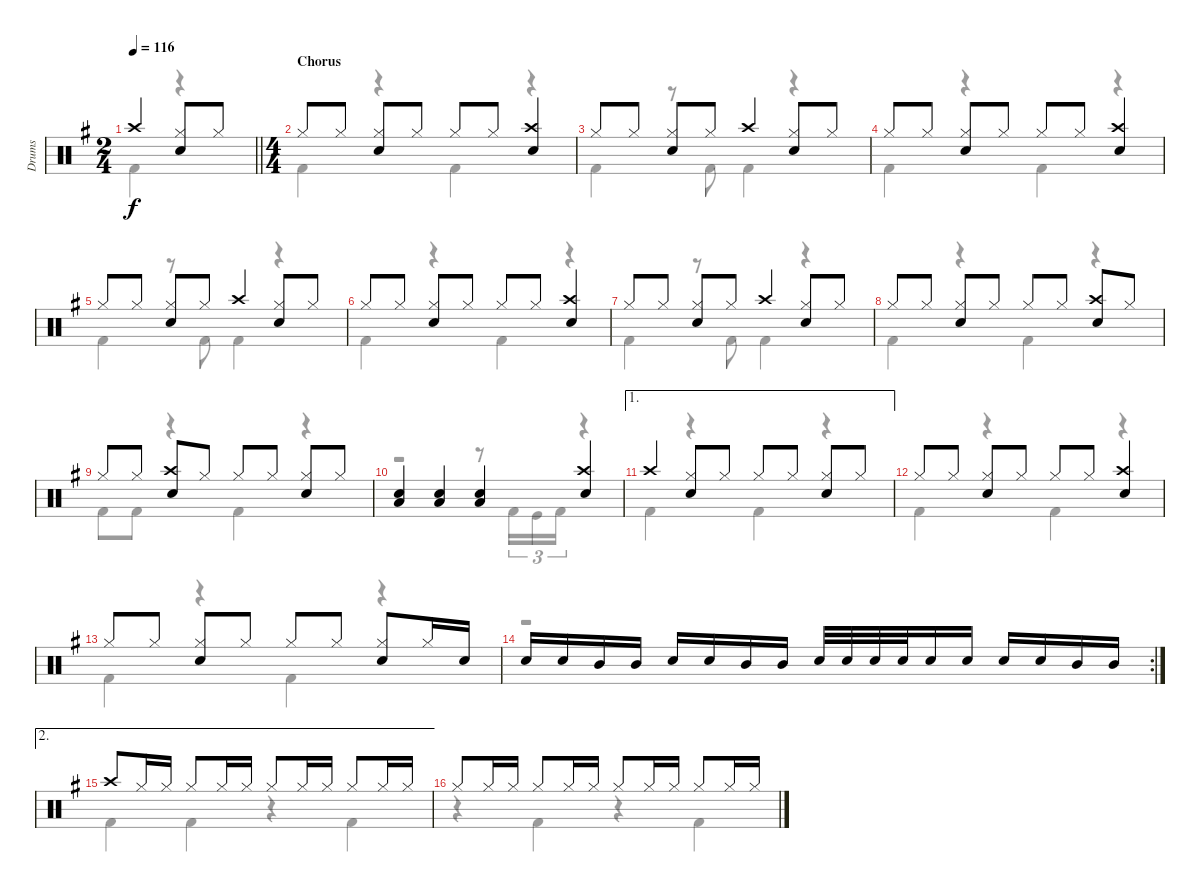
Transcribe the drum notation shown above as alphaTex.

\track ("Drums" "Drums") {instrument percussion}
\staff {score}
\articulation defaults
\voice
\ts (2 4)
\tempo 116
\clef neutral
\barLineRight lightlight
\ks g "Crash high (hit)".4{dy f}
("Hi-Hat (closed)" "Snare (hit) 2").8 "Hi-Hat (closed)".8 |
\ts (4 4)
\section ("" "Chorus")
"Hi-Hat (closed)".8 "Hi-Hat (closed)".8 ("Hi-Hat (closed)" "Snare (hit) 2").8 "Hi-Hat (closed)".8 "Hi-Hat (closed)".8 "Hi-Hat (closed)".8 ("Crash high (hit)" "Snare (hit) 2").4 |
"Hi-Hat (closed)".8 "Hi-Hat (closed)".8 ("Hi-Hat (closed)" "Snare (hit) 2").8 "Hi-Hat (closed)".8 "Crash high (hit)".4 ("Hi-Hat (closed)" "Snare (hit) 2").8 "Hi-Hat (closed)".8 |
"Hi-Hat (closed)".8 "Hi-Hat (closed)".8 ("Hi-Hat (closed)" "Snare (hit) 2").8 "Hi-Hat (closed)".8 "Hi-Hat (closed)".8 "Hi-Hat (closed)".8 ("Crash high (hit)" "Snare (hit) 2").4 |
"Hi-Hat (closed)".8 "Hi-Hat (closed)".8 ("Hi-Hat (closed)" "Snare (hit) 2").8 "Hi-Hat (closed)".8 "Crash high (hit)".4 ("Hi-Hat (closed)" "Snare (hit) 2").8 "Hi-Hat (closed)".8 |
"Hi-Hat (closed)".8 "Hi-Hat (closed)".8 ("Hi-Hat (closed)" "Snare (hit) 2").8 "Hi-Hat (closed)".8 "Hi-Hat (closed)".8 "Hi-Hat (closed)".8 ("Crash high (hit)" "Snare (hit) 2").4 |
"Hi-Hat (closed)".8 "Hi-Hat (closed)".8 ("Hi-Hat (closed)" "Snare (hit) 2").8 "Hi-Hat (closed)".8 "Crash high (hit)".4 ("Hi-Hat (closed)" "Snare (hit) 2").8 "Hi-Hat (closed)".8 |
"Hi-Hat (closed)".8 "Hi-Hat (closed)".8 ("Hi-Hat (closed)" "Snare (hit) 2").8 "Hi-Hat (closed)".8 "Hi-Hat (closed)".8 "Hi-Hat (closed)".8 ("Crash high (hit)" "Snare (hit) 2").8 "Hi-Hat (closed)".8 |
"Hi-Hat (closed)".8 "Hi-Hat (closed)".8 ("Crash high (hit)" "Snare (hit) 2").8 "Hi-Hat (closed)".8 "Hi-Hat (closed)".8 "Hi-Hat (closed)".8 ("Hi-Hat (closed)" "Snare (hit) 2").8 "Hi-Hat (closed)".8 |
("Low Floor Tom (hit)" "Snare (hit) 2").4 ("Low Floor Tom (hit)" "Snare (hit) 2").4 ("Low Floor Tom (hit)" "Snare (hit) 2").4 ("Crash high (hit)" "Snare (hit) 2").4 |
\ae 1 "Crash high (hit)".4
("Hi-Hat (closed)" "Snare (hit) 2").8 "Hi-Hat (closed)".8 "Hi-Hat (closed)".8 "Hi-Hat (closed)".8 ("Hi-Hat (closed)" "Snare (hit) 2").8 "Hi-Hat (closed)".8 |
"Hi-Hat (closed)".8 "Hi-Hat (closed)".8 ("Hi-Hat (closed)" "Snare (hit) 2").8 "Hi-Hat (closed)".8 "Hi-Hat (closed)".8 "Hi-Hat (closed)".8 ("Crash high (hit)" "Snare (hit) 2").4 |
"Hi-Hat (closed)".8 "Hi-Hat (closed)".8 ("Hi-Hat (closed)" "Snare (hit) 2").8 "Hi-Hat (closed)".8 "Hi-Hat (closed)".8 "Hi-Hat (closed)".8 ("Hi-Hat (closed)" "Snare (hit) 2").8 "Hi-Hat (closed)".16 "Snare (hit) 2".16 |
\rc 2 "Snare (hit) 2".16 "Snare (hit) 2".16 "Mid Tom (hit)".16 "Mid Tom (hit)".16 "Snare (hit) 2".16 "Snare (hit) 2".16 "Mid Tom (hit)".16 "Mid Tom (hit)".16 "Snare (hit) 2".32 "Snare (hit) 2".32 "Snare (hit) 2".32 "Snare (hit) 2".32 "Snare (hit) 2".16 "Snare (hit) 2".16 "Snare (hit) 2".16 "Snare (hit) 2".16 "Mid Tom (hit)".16 "Mid Tom (hit)".16
|
\ae 2 "Crash high (hit)".8 "Hi-Hat (closed)".16 "Hi-Hat (closed)".16 "Hi-Hat (closed)".8 "Hi-Hat (closed)".16 "Hi-Hat (closed)".16 "Hi-Hat (closed)".8 "Hi-Hat (closed)".16 "Hi-Hat (closed)".16 "Hi-Hat (closed)".8 "Hi-Hat (closed)".16 "Hi-Hat (closed)".16
|
"Hi-Hat (closed)".8 "Hi-Hat (closed)".16 "Hi-Hat (closed)".16 "Hi-Hat (closed)".8 "Hi-Hat (closed)".16 "Hi-Hat (closed)".16 "Hi-Hat (closed)".8 "Hi-Hat (closed)".16 "Hi-Hat (closed)".16 "Hi-Hat (closed)".8 "Hi-Hat (closed)".16 "Hi-Hat (closed)".16
\voice
\clef neutral
\ottava regular
\simile none
\barLineRight lightlight
\ks g "Kick (hit) 2".4{dy f}
r.4 |
"Kick (hit) 2".4 r.4 "Kick (hit) 2".4 r.4 |
"Kick (hit) 2".4 r.8 "Kick (hit) 2".8 "Kick (hit) 2".4 r.4 |
"Kick (hit) 2".4 r.4 "Kick (hit) 2".4 r.4 |
"Kick (hit) 2".4 r.8 "Kick (hit) 2".8 "Kick (hit) 2".4 r.4 |
"Kick (hit) 2".4 r.4 "Kick (hit) 2".4 r.4 |
"Kick (hit) 2".4 r.8 "Kick (hit) 2".8 "Kick (hit) 2".4 r.4 |
"Kick (hit) 2".4 r.4 "Kick (hit) 2".4 r.4 |
"Kick (hit) 2".8 "Kick (hit) 2".8 r.4 "Kick (hit) 2".4 r.4 |
r.2 r.8 "Kick (hit) 2".16{tu (3 2)} "Kick (hit)".16{tu (3 2)} "Kick (hit) 2".16{tu (3 2)} r.4 |
"Kick (hit) 2".4 r.4 "Kick (hit) 2".4 r.4 |
"Kick (hit) 2".4 r.4 "Kick (hit) 2".4 r.4 |
"Kick (hit) 2".4 r.4 "Kick (hit) 2".4 r.4 |
r.1 |
"Kick (hit) 2".4 "Kick (hit) 2".4 r.4 "Kick (hit) 2".4 |
r.4 "Kick (hit) 2".4 r.4 "Kick (hit) 2".4
